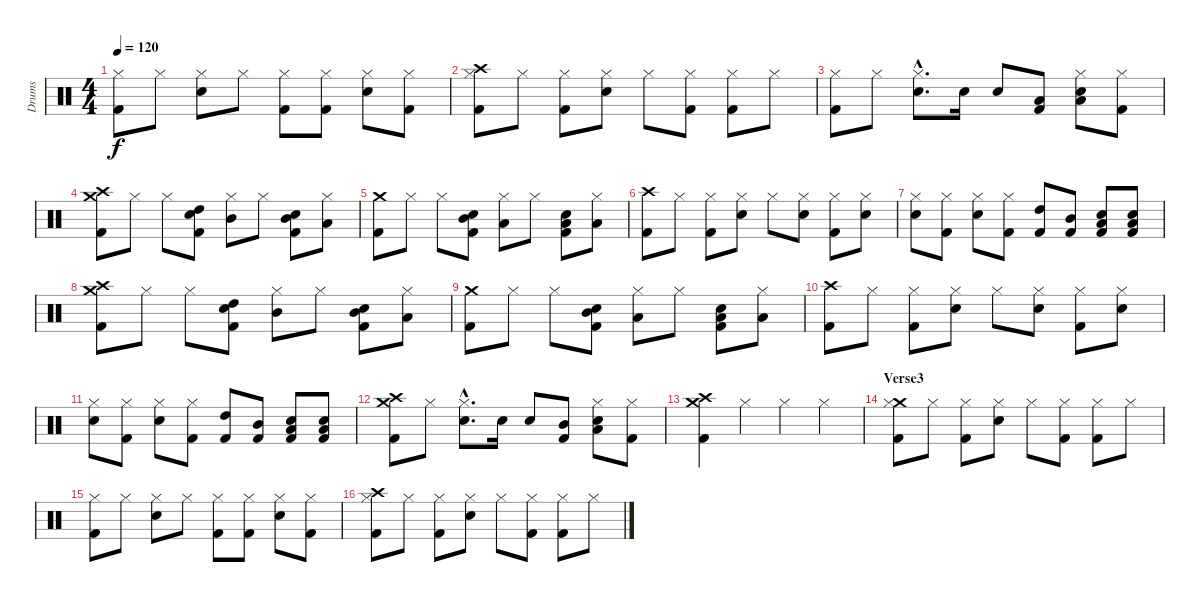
\track ("Drums" "Drums") {instrument percussion}
\staff {score}
\articulation defaults
\ts (4 4)
\tempo 120
\clef neutral
\ks c
("Hi-Hat (closed)" "Kick (hit) 2").8{dy f} "Hi-Hat (closed)".8 ("Hi-Hat (closed)" "Snare (hit) 2").8 "Hi-Hat (closed)".8 ("Hi-Hat (closed)" "Kick (hit) 2").8 ("Hi-Hat (closed)" "Kick (hit) 2").8 ("Hi-Hat (closed)" "Snare (hit) 2").8 ("Hi-Hat (closed)" "Kick (hit) 2").8 |
("Crash high (hit)" "Hi-Hat (closed)" "Kick (hit) 2").8 "Hi-Hat (closed)".8 ("Hi-Hat (closed)" "Kick (hit) 2").8 ("Hi-Hat (closed)" "Snare (hit) 2").8 "Hi-Hat (closed)".8 ("Hi-Hat (closed)" "Kick (hit) 2").8 ("Hi-Hat (closed)" "Kick (hit) 2").8 "Hi-Hat (closed)".8 |
("Hi-Hat (closed)" "Kick (hit) 2").8 "Hi-Hat (closed)".8 ("Hi-Hat (closed)"{hac} "Snare (hit) 2"{hac}).8{d} "Snare (hit) 2".16 "Snare (hit) 2".8 ("Low Tom (hit)" "Kick (hit) 2").8 ("Hi-Hat (closed)" "Low Tom (hit)" "Snare (hit) 2").8 ("Hi-Hat (closed)" "Kick (hit) 2").8 |
("Crash medium (hit)" "Crash high (hit)" "Kick (hit) 2").8 "Hi-Hat (closed)".8 "Hi-Hat (closed)".8 ("High Tom (hit)" "Snare (hit) 2" "Kick (hit) 2").8 ("Hi-Hat (closed)" "Mid Tom (hit)").8 "Hi-Hat (closed)".8 ("Mid Tom (hit)" "Snare (hit) 2" "Kick (hit) 2").8 ("Hi-Hat (closed)" "Low Tom (hit)").8 |
("Crash medium (hit)" "Kick (hit) 2").8 "Hi-Hat (closed)".8 "Hi-Hat (closed)".8 ("Mid Tom (hit)" "Snare (hit) 2" "Kick (hit) 2").8 ("Hi-Hat (closed)" "Low Tom (hit)").8 "Hi-Hat (closed)".8 ("Low Tom (hit)" "Snare (hit) 2" "Kick (hit) 2").8 ("Hi-Hat (closed)" "Low Floor Tom (hit)").8 |
("Crash high (hit)" "Kick (hit) 2").8 "Hi-Hat (closed)".8 ("Hi-Hat (closed)" "Kick (hit) 2").8 ("Hi-Hat (closed)" "Snare (hit) 2").8 "Hi-Hat (closed)".8 ("Hi-Hat (closed)" "Snare (hit) 2").8 ("Hi-Hat (closed)" "Kick (hit) 2").8 ("Hi-Hat (closed)" "Snare (hit) 2").8 |
("Hi-Hat (closed)" "Snare (hit) 2").8 ("Hi-Hat (closed)" "Kick (hit) 2").8 ("Hi-Hat (closed)" "Snare (hit) 2").8 ("Hi-Hat (closed)" "Kick (hit) 2").8 ("High Tom (hit)" "Kick (hit) 2").8 ("Mid Tom (hit)" "Kick (hit) 2").8 ("Low Tom (hit)" "Snare (hit) 2" "Kick (hit) 2").8 ("Low Floor Tom (hit)" "Snare (hit) 2" "Kick (hit) 2").8 |
("Crash medium (hit)" "Crash high (hit)" "Kick (hit) 2").8 "Hi-Hat (closed)".8 "Hi-Hat (closed)".8 ("High Tom (hit)" "Snare (hit) 2" "Kick (hit) 2").8 ("Hi-Hat (closed)" "Mid Tom (hit)").8 "Hi-Hat (closed)".8 ("Mid Tom (hit)" "Snare (hit) 2" "Kick (hit) 2").8 ("Hi-Hat (closed)" "Low Tom (hit)").8 |
("Crash medium (hit)" "Kick (hit) 2").8 "Hi-Hat (closed)".8 "Hi-Hat (closed)".8 ("Mid Tom (hit)" "Snare (hit) 2" "Kick (hit) 2").8 ("Hi-Hat (closed)" "Low Tom (hit)").8 "Hi-Hat (closed)".8 ("Low Tom (hit)" "Snare (hit) 2" "Kick (hit) 2").8 ("Hi-Hat (closed)" "Low Floor Tom (hit)").8 |
("Crash high (hit)" "Kick (hit) 2").8 "Hi-Hat (closed)".8 ("Hi-Hat (closed)" "Kick (hit) 2").8 ("Hi-Hat (closed)" "Snare (hit) 2").8 "Hi-Hat (closed)".8 ("Hi-Hat (closed)" "Snare (hit) 2").8 ("Hi-Hat (closed)" "Kick (hit) 2").8 ("Hi-Hat (closed)" "Snare (hit) 2").8 |
("Hi-Hat (closed)" "Snare (hit) 2").8 ("Hi-Hat (closed)" "Kick (hit) 2").8 ("Hi-Hat (closed)" "Snare (hit) 2").8 ("Hi-Hat (closed)" "Kick (hit) 2").8 ("High Tom (hit)" "Kick (hit) 2").8 ("Mid Tom (hit)" "Kick (hit) 2").8 ("Low Tom (hit)" "Snare (hit) 2" "Kick (hit) 2").8 ("Low Floor Tom (hit)" "Snare (hit) 2" "Kick (hit) 2").8 |
("Crash medium (hit)" "Crash high (hit)" "Kick (hit) 2").8 "Hi-Hat (closed)".8 ("Hi-Hat (closed)"{hac} "Snare (hit) 2"{hac}).8{d} "Snare (hit) 2".16 "Snare (hit) 2".8 ("Mid Tom (hit)" "Kick (hit) 2").8 ("Hi-Hat (closed)" "Low Tom (hit)" "Snare (hit) 2").8 ("Hi-Hat (closed)" "Kick (hit) 2").8 |
("Crash medium (hit)" "Crash high (hit)" "Kick (hit) 2").4 "Hi-Hat (closed)".4 "Hi-Hat (closed)".4 "Hi-Hat (closed)".4 |
\section ("" "Verse3")
("Crash medium (hit)" "Hi-Hat (closed)" "Kick (hit) 2").8 "Hi-Hat (closed)".8 ("Hi-Hat (closed)" "Kick (hit) 2").8 ("Hi-Hat (closed)" "Snare (hit) 2").8 "Hi-Hat (closed)".8 ("Hi-Hat (closed)" "Kick (hit) 2").8 ("Hi-Hat (closed)" "Kick (hit) 2").8 "Hi-Hat (closed)".8 |
("Hi-Hat (closed)" "Kick (hit) 2").8 "Hi-Hat (closed)".8 ("Hi-Hat (closed)" "Snare (hit) 2").8 "Hi-Hat (closed)".8 ("Hi-Hat (closed)" "Kick (hit) 2").8 ("Hi-Hat (closed)" "Kick (hit) 2").8 ("Hi-Hat (closed)" "Snare (hit) 2").8 ("Hi-Hat (closed)" "Kick (hit) 2").8 |
("Crash high (hit)" "Hi-Hat (closed)" "Kick (hit) 2").8 "Hi-Hat (closed)".8 ("Hi-Hat (closed)" "Kick (hit) 2").8 ("Hi-Hat (closed)" "Snare (hit) 2").8 "Hi-Hat (closed)".8 ("Hi-Hat (closed)" "Kick (hit) 2").8 ("Hi-Hat (closed)" "Kick (hit) 2").8 "Hi-Hat (closed)".8
